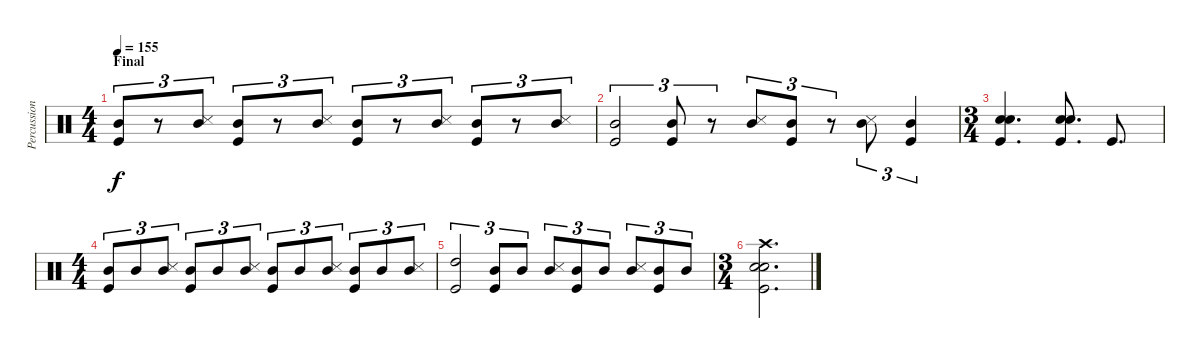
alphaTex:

\track ("Percussions" "Percussion") {instrument percussion}
\staff {score}
\articulation defaults
\ts (4 4)
\section ("" "Final")
\tempo 155
\clef neutral
\ks c
("Mid Tom (hit)" "Kick (hit)").8{tu (3 2) dy f} r.8{tu (3 2)} ("Snare (side stick) 3" "Mid Tom (hit)").8{tu (3 2)} ("Mid Tom (hit)" "Kick (hit)").8{tu (3 2)} r.8{tu (3 2)} ("Snare (side stick) 3" "Mid Tom (hit)").8{tu (3 2)} ("Mid Tom (hit)" "Kick (hit)").8{tu (3 2)} r.8{tu (3 2)} ("Snare (side stick) 3" "Mid Tom (hit)").8{tu (3 2)} ("Mid Tom (hit)" "Kick (hit)").8{tu (3 2)} r.8{tu (3 2)} ("Snare (side stick) 3" "Mid Tom (hit)").8{tu (3 2)} |
("Mid Tom (hit)" "Kick (hit)").2{tu (3 2)} ("Mid Tom (hit)" "Kick (hit)").8{tu (3 2)} r.8{tu (3 2)} ("Snare (side stick) 3" "Mid Tom (hit)").8{tu (3 2)} ("Mid Tom (hit)" "Kick (hit)").8{tu (3 2)} r.8{tu (3 2)} ("Snare (side stick) 3" "Mid Tom (hit)").8{tu (3 2)} ("Mid Tom (hit)" "Kick (hit)").4{tu (3 2)} |
\ts (3 4)
("Electric Snare (hit)" "Snare (hit) 2" "Kick (hit)").4{d} ("Electric Snare (hit)" "Snare (hit) 2" "Kick (hit)").8{d} "Kick (hit)".8{d} |
\ts (4 4)
("Mid Tom (hit)" "Kick (hit)").8{tu (3 2)} "Mid Tom (hit)".8{tu (3 2)} ("Snare (side stick) 3" "Mid Tom (hit)").8{tu (3 2)} ("Mid Tom (hit)" "Kick (hit)").8{tu (3 2)} "Mid Tom (hit)".8{tu (3 2)} ("Snare (side stick) 3" "Mid Tom (hit)").8{tu (3 2)} ("Mid Tom (hit)" "Kick (hit)").8{tu (3 2)} "Mid Tom (hit)".8{tu (3 2)} ("Snare (side stick) 3" "Mid Tom (hit)").8{tu (3 2)} ("Mid Tom (hit)" "Kick (hit)").8{tu (3 2)} "Mid Tom (hit)".8{tu (3 2)} ("Snare (side stick) 3" "Mid Tom (hit)").8{tu (3 2)} |
("High Tom (hit)" "Kick (hit)").2{tu (3 2)} ("Mid Tom (hit)" "Kick (hit)").8{tu (3 2)} "Mid Tom (hit)".8{tu (3 2)} ("Snare (side stick) 3" "Mid Tom (hit)").8{tu (3 2)} ("Mid Tom (hit)" "Kick (hit)").8{tu (3 2)} "Mid Tom (hit)".8{tu (3 2)} ("Snare (side stick) 3" "Mid Tom (hit)").8{tu (3 2)} ("Mid Tom (hit)" "Kick (hit)").8{tu (3 2)} "Mid Tom (hit)".8{tu (3 2)} |
\ts (3 4)
("Electric Snare (hit)" "Snare (hit) 2" "Crash high (hit)" "Kick (hit)").2{d}
